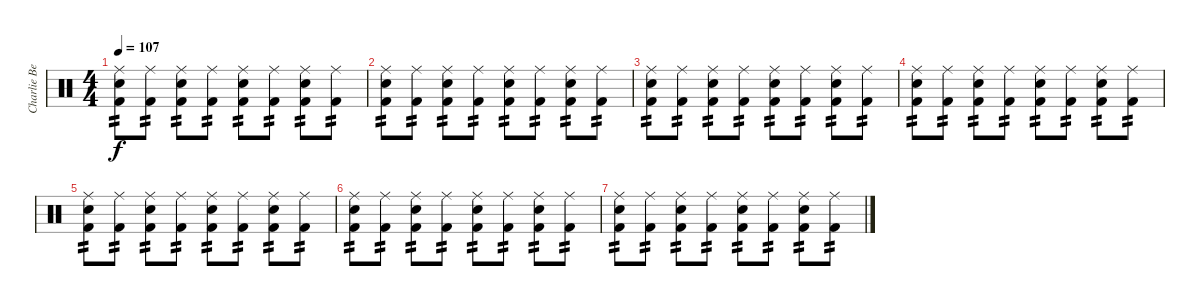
\track ("Charlie Benante" "Charlie Be") {instrument percussion}
\staff {score}
\articulation defaults
\ts (4 4)
\tempo 107
\clef neutral
\ks c
("Ride (middle)" "Electric Snare (hit)" "Kick (hit) 2").8{tp 2 dy f} ("Ride (middle)" "Kick (hit) 2").8{tp 2} ("Ride (middle)" "Electric Snare (hit)" "Kick (hit) 2").8{tp 2} ("Ride (middle)" "Kick (hit) 2").8{tp 2} ("Ride (middle)" "Electric Snare (hit)" "Kick (hit) 2").8{tp 2} ("Ride (middle)" "Kick (hit) 2").8{tp 2} ("Ride (middle)" "Electric Snare (hit)" "Kick (hit) 2").8{tp 2} ("Ride (middle)" "Kick (hit) 2").8{tp 2} |
("Ride (middle)" "Electric Snare (hit)" "Kick (hit) 2").8{tp 2} ("Ride (middle)" "Kick (hit) 2").8{tp 2} ("Ride (middle)" "Electric Snare (hit)" "Kick (hit) 2").8{tp 2} ("Ride (middle)" "Kick (hit) 2").8{tp 2} ("Ride (middle)" "Electric Snare (hit)" "Kick (hit) 2").8{tp 2} ("Ride (middle)" "Kick (hit) 2").8{tp 2} ("Ride (middle)" "Electric Snare (hit)" "Kick (hit) 2").8{tp 2} ("Ride (middle)" "Kick (hit) 2").8{tp 2} |
("Ride (middle)" "Electric Snare (hit)" "Kick (hit) 2").8{tp 2} ("Ride (middle)" "Kick (hit) 2").8{tp 2} ("Ride (middle)" "Electric Snare (hit)" "Kick (hit) 2").8{tp 2} ("Ride (middle)" "Kick (hit) 2").8{tp 2} ("Ride (middle)" "Electric Snare (hit)" "Kick (hit) 2").8{tp 2} ("Ride (middle)" "Kick (hit) 2").8{tp 2} ("Ride (middle)" "Electric Snare (hit)" "Kick (hit) 2").8{tp 2} ("Ride (middle)" "Kick (hit) 2").8{tp 2} |
("Ride (middle)" "Electric Snare (hit)" "Kick (hit) 2").8{tp 2} ("Ride (middle)" "Kick (hit) 2").8{tp 2} ("Ride (middle)" "Electric Snare (hit)" "Kick (hit) 2").8{tp 2} ("Ride (middle)" "Kick (hit) 2").8{tp 2} ("Ride (middle)" "Electric Snare (hit)" "Kick (hit) 2").8{tp 2} ("Ride (middle)" "Kick (hit) 2").8{tp 2} ("Ride (middle)" "Electric Snare (hit)" "Kick (hit) 2").8{tp 2} ("Ride (middle)" "Kick (hit) 2").8{tp 2} |
("Ride (middle)" "Electric Snare (hit)" "Kick (hit) 2").8{tp 2} ("Ride (middle)" "Kick (hit) 2").8{tp 2} ("Ride (middle)" "Electric Snare (hit)" "Kick (hit) 2").8{tp 2} ("Ride (middle)" "Kick (hit) 2").8{tp 2} ("Ride (middle)" "Electric Snare (hit)" "Kick (hit) 2").8{tp 2} ("Ride (middle)" "Kick (hit) 2").8{tp 2} ("Ride (middle)" "Electric Snare (hit)" "Kick (hit) 2").8{tp 2} ("Ride (middle)" "Kick (hit) 2").8{tp 2} |
("Ride (middle)" "Electric Snare (hit)" "Kick (hit) 2").8{tp 2} ("Ride (middle)" "Kick (hit) 2").8{tp 2} ("Ride (middle)" "Electric Snare (hit)" "Kick (hit) 2").8{tp 2} ("Ride (middle)" "Kick (hit) 2").8{tp 2} ("Ride (middle)" "Electric Snare (hit)" "Kick (hit) 2").8{tp 2} ("Ride (middle)" "Kick (hit) 2").8{tp 2} ("Ride (middle)" "Electric Snare (hit)" "Kick (hit) 2").8{tp 2} ("Ride (middle)" "Kick (hit) 2").8{tp 2} |
("Ride (middle)" "Electric Snare (hit)" "Kick (hit) 2").8{tp 2} ("Ride (middle)" "Kick (hit) 2").8{tp 2} ("Ride (middle)" "Electric Snare (hit)" "Kick (hit) 2").8{tp 2} ("Ride (middle)" "Kick (hit) 2").8{tp 2} ("Ride (middle)" "Electric Snare (hit)" "Kick (hit) 2").8{tp 2} ("Ride (middle)" "Kick (hit) 2").8{tp 2} ("Ride (middle)" "Electric Snare (hit)" "Kick (hit) 2").8{tp 2} ("Ride (middle)" "Kick (hit) 2").8{tp 2}
